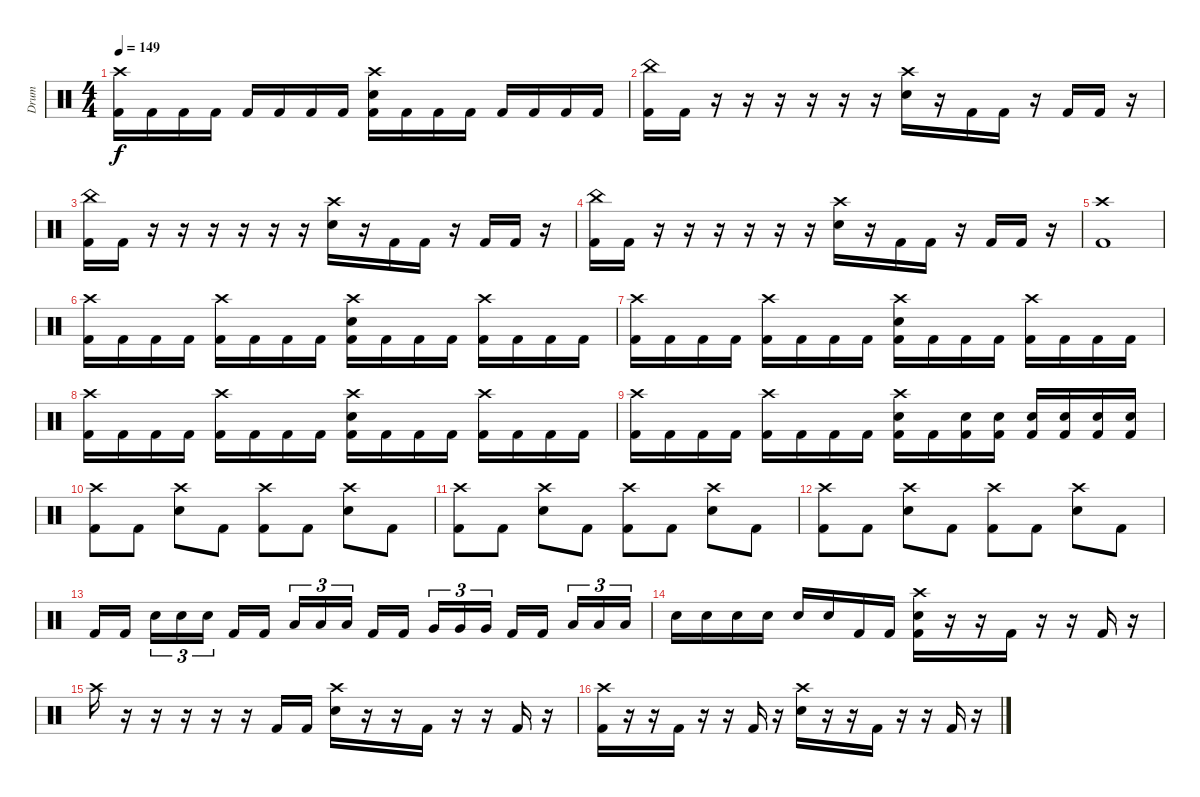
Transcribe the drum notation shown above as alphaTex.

\track ("Drum" "Drum") {instrument percussion}
\staff {score}
\articulation defaults
\ts (4 4)
\tempo 149
\clef neutral
\ks c
("Crash high (hit)" "Kick (hit) 2").16{dy f} "Kick (hit) 2".16 "Kick (hit) 2".16 "Kick (hit) 2".16 "Kick (hit) 2".16 "Kick (hit) 2".16 "Kick (hit) 2".16 "Kick (hit) 2".16 ("Crash high (hit)" "Electric Snare (hit)" "Kick (hit) 2").16 "Kick (hit) 2".16 "Kick (hit) 2".16 "Kick (hit) 2".16 "Kick (hit) 2".16 "Kick (hit) 2".16 "Kick (hit) 2".16 "Kick (hit) 2".16 |
("China (hit)" "Kick (hit) 2").16 "Kick (hit) 2".16 r.16 r.16 r.16 r.16 r.16 r.16 ("Crash high (hit)" "Electric Snare (hit)").16 r.16 "Kick (hit) 2".16 "Kick (hit) 2".16 r.16 "Kick (hit) 2".16 "Kick (hit) 2".16 r.16 |
("China (hit)" "Kick (hit) 2").16 "Kick (hit) 2".16 r.16 r.16 r.16 r.16 r.16 r.16 ("Crash high (hit)" "Electric Snare (hit)").16 r.16 "Kick (hit) 2".16 "Kick (hit) 2".16 r.16 "Kick (hit) 2".16 "Kick (hit) 2".16 r.16 |
("China (hit)" "Kick (hit) 2").16 "Kick (hit) 2".16 r.16 r.16 r.16 r.16 r.16 r.16 ("Crash high (hit)" "Electric Snare (hit)").16 r.16 "Kick (hit) 2".16 "Kick (hit) 2".16 r.16 "Kick (hit) 2".16 "Kick (hit) 2".16 r.16 |
("Crash high (hit)" "Kick (hit) 2").1 |
("Crash high (hit)" "Kick (hit) 2").16 "Kick (hit) 2".16 "Kick (hit) 2".16 "Kick (hit) 2".16 ("Crash high (hit)" "Kick (hit) 2").16 "Kick (hit) 2".16 "Kick (hit) 2".16 "Kick (hit) 2".16 ("Crash high (hit)" "Electric Snare (hit)" "Kick (hit) 2").16 "Kick (hit) 2".16 "Kick (hit) 2".16 "Kick (hit) 2".16 ("Crash high (hit)" "Kick (hit) 2").16 "Kick (hit) 2".16 "Kick (hit) 2".16 "Kick (hit) 2".16 |
("Crash high (hit)" "Kick (hit) 2").16 "Kick (hit) 2".16 "Kick (hit) 2".16 "Kick (hit) 2".16 ("Crash high (hit)" "Kick (hit) 2").16 "Kick (hit) 2".16 "Kick (hit) 2".16 "Kick (hit) 2".16 ("Crash high (hit)" "Electric Snare (hit)" "Kick (hit) 2").16 "Kick (hit) 2".16 "Kick (hit) 2".16 "Kick (hit) 2".16 ("Crash high (hit)" "Kick (hit) 2").16 "Kick (hit) 2".16 "Kick (hit) 2".16 "Kick (hit) 2".16 |
("Crash high (hit)" "Kick (hit) 2").16 "Kick (hit) 2".16 "Kick (hit) 2".16 "Kick (hit) 2".16 ("Crash high (hit)" "Kick (hit) 2").16 "Kick (hit) 2".16 "Kick (hit) 2".16 "Kick (hit) 2".16 ("Crash high (hit)" "Electric Snare (hit)" "Kick (hit) 2").16 "Kick (hit) 2".16 "Kick (hit) 2".16 "Kick (hit) 2".16 ("Crash high (hit)" "Kick (hit) 2").16 "Kick (hit) 2".16 "Kick (hit) 2".16 "Kick (hit) 2".16 |
("Crash high (hit)" "Kick (hit) 2").16 "Kick (hit) 2".16 "Kick (hit) 2".16 "Kick (hit) 2".16 ("Crash high (hit)" "Kick (hit) 2").16 "Kick (hit) 2".16 "Kick (hit) 2".16 "Kick (hit) 2".16 ("Crash high (hit)" "Electric Snare (hit)" "Kick (hit) 2").16 "Kick (hit) 2".16 ("Electric Snare (hit)" "Kick (hit) 2").16 ("Electric Snare (hit)" "Kick (hit) 2").16 ("Electric Snare (hit)" "Kick (hit) 2").16 ("Electric Snare (hit)" "Kick (hit) 2").16 ("Electric Snare (hit)" "Kick (hit) 2").16 ("Electric Snare (hit)" "Kick (hit) 2").16 |
("Crash high (hit)" "Kick (hit) 2").8 "Kick (hit) 2".8 ("Crash high (hit)" "Electric Snare (hit)").8 "Kick (hit) 2".8 ("Crash high (hit)" "Kick (hit) 2").8 "Kick (hit) 2".8 ("Crash high (hit)" "Electric Snare (hit)").8 "Kick (hit) 2".8 |
("Crash high (hit)" "Kick (hit) 2").8 "Kick (hit) 2".8 ("Crash high (hit)" "Electric Snare (hit)").8 "Kick (hit) 2".8 ("Crash high (hit)" "Kick (hit) 2").8 "Kick (hit) 2".8 ("Crash high (hit)" "Electric Snare (hit)").8 "Kick (hit) 2".8 |
("Crash high (hit)" "Kick (hit) 2").8 "Kick (hit) 2".8 ("Crash high (hit)" "Electric Snare (hit)").8 "Kick (hit) 2".8 ("Crash high (hit)" "Kick (hit) 2").8 "Kick (hit) 2".8 ("Crash high (hit)" "Electric Snare (hit)").8 "Kick (hit) 2".8 |
"Kick (hit) 2".16 "Kick (hit) 2".16{beam splitsecondary} "Electric Snare (hit)".16{tu (3 2)} "Electric Snare (hit)".16{tu (3 2)} "Electric Snare (hit)".16{tu (3 2)} "Kick (hit) 2".16 "Kick (hit) 2".16{beam splitsecondary} "Low Tom (hit)".16{tu (3 2)} "Low Tom (hit)".16{tu (3 2)} "Low Tom (hit)".16{tu (3 2)} "Kick (hit) 2".16 "Kick (hit) 2".16{beam splitsecondary} "Very Low Tom (hit)".16{tu (3 2)} "Very Low Tom (hit)".16{tu (3 2)} "Very Low Tom (hit)".16{tu (3 2)} "Kick (hit) 2".16 "Kick (hit) 2".16{beam splitsecondary} "Low Floor Tom (hit)".16{tu (3 2)} "Low Floor Tom (hit)".16{tu (3 2)} "Low Floor Tom (hit)".16{tu (3 2)} |
"Electric Snare (hit)".16 "Electric Snare (hit)".16 "Electric Snare (hit)".16 "Electric Snare (hit)".16 "Electric Snare (hit)".16 "Electric Snare (hit)".16 "Kick (hit) 2".16 "Kick (hit) 2".16 ("Crash high (hit)" "Electric Snare (hit)" "Kick (hit) 2").16 r.16 r.16 "Kick (hit) 2".16 r.16 r.16 "Kick (hit) 2".16 r.16 |
"Crash high (hit)".16 r.16 r.16 r.16 r.16 r.16 "Kick (hit) 2".16 "Kick (hit) 2".16 ("Crash high (hit)" "Electric Snare (hit)").16 r.16 r.16 "Kick (hit) 2".16 r.16 r.16 "Kick (hit) 2".16 r.16 |
("Crash high (hit)" "Kick (hit) 2").16 r.16 r.16 "Kick (hit) 2".16 r.16 r.16 "Kick (hit) 2".16 r.16 ("Crash high (hit)" "Electric Snare (hit)").16 r.16 r.16 "Kick (hit) 2".16 r.16 r.16 "Kick (hit) 2".16 r.16
